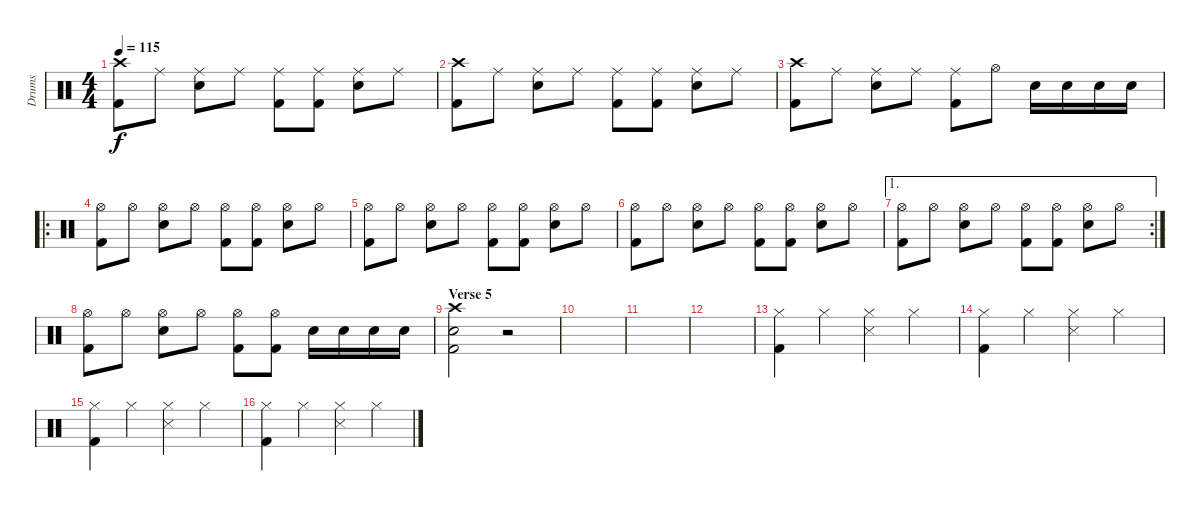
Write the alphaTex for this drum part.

\track ("Drums" "Drums") {instrument percussion}
\staff {score}
\articulation defaults
\ts (4 4)
\tempo 115
\clef neutral
\ks c
("Crash high (hit)" "Kick (hit) 2").8{dy f} "Ride (middle)".8 ("Ride (middle)" "Electric Snare (hit)").8 "Ride (middle)".8 ("Ride (middle)" "Kick (hit) 2").8 ("Ride (middle)" "Kick (hit) 2").8 ("Ride (middle)" "Electric Snare (hit)").8 "Ride (middle)".8 |
("Crash high (hit)" "Kick (hit) 2").8 "Ride (middle)".8 ("Ride (middle)" "Electric Snare (hit)").8 "Ride (middle)".8 ("Ride (middle)" "Kick (hit) 2").8 ("Ride (middle)" "Kick (hit) 2").8 ("Ride (middle)" "Electric Snare (hit)").8 "Ride (middle)".8 |
("Crash high (hit)" "Kick (hit) 2").8 "Ride (middle)".8 ("Ride (middle)" "Electric Snare (hit)").8 "Ride (middle)".8 ("Ride (middle)" "Kick (hit) 2").8 "Hi-Hat (open)".8 "Electric Snare (hit)".16 "Electric Snare (hit)".16 "Electric Snare (hit)".16 "Electric Snare (hit)".16 |
\ro
("Hi-Hat (open)" "Kick (hit) 2").8 "Hi-Hat (open)".8 ("Hi-Hat (open)" "Electric Snare (hit)").8 "Hi-Hat (open)".8 ("Hi-Hat (open)" "Kick (hit) 2").8 ("Hi-Hat (open)" "Kick (hit) 2").8 ("Hi-Hat (open)" "Electric Snare (hit)").8 "Hi-Hat (open)".8 |
("Hi-Hat (open)" "Kick (hit) 2").8 "Hi-Hat (open)".8 ("Hi-Hat (open)" "Electric Snare (hit)").8 "Hi-Hat (open)".8 ("Hi-Hat (open)" "Kick (hit) 2").8 ("Hi-Hat (open)" "Kick (hit) 2").8 ("Hi-Hat (open)" "Electric Snare (hit)").8 "Hi-Hat (open)".8 |
("Hi-Hat (open)" "Kick (hit) 2").8 "Hi-Hat (open)".8 ("Hi-Hat (open)" "Electric Snare (hit)").8 "Hi-Hat (open)".8 ("Hi-Hat (open)" "Kick (hit) 2").8 ("Hi-Hat (open)" "Kick (hit) 2").8 ("Hi-Hat (open)" "Electric Snare (hit)").8 "Hi-Hat (open)".8 |
\ae 1
\rc 2
("Hi-Hat (open)" "Kick (hit) 2").8 "Hi-Hat (open)".8 ("Hi-Hat (open)" "Electric Snare (hit)").8 "Hi-Hat (open)".8 ("Hi-Hat (open)" "Kick (hit) 2").8 ("Hi-Hat (open)" "Kick (hit) 2").8 ("Hi-Hat (open)" "Electric Snare (hit)").8 "Hi-Hat (open)".8 |
("Hi-Hat (open)" "Kick (hit) 2").8 "Hi-Hat (open)".8 ("Hi-Hat (open)" "Electric Snare (hit)").8 "Hi-Hat (open)".8 ("Hi-Hat (open)" "Kick (hit) 2").8 ("Hi-Hat (open)" "Kick (hit) 2").8 "Electric Snare (hit)".16 "Electric Snare (hit)".16 "Electric Snare (hit)".16 "Electric Snare (hit)".16 |
\section ("" "Verse 5")
("Crash high (hit)" "Kick (hit) 2" "Electric Snare (hit)").2 r.2 |
|
|
|
("Hi-Hat (closed)" "Kick (hit) 2").4 "Hi-Hat (closed)".4 ("Hi-Hat (closed)" "Snare (side stick) 3").4 "Hi-Hat (closed)".4 |
("Hi-Hat (closed)" "Kick (hit) 2").4 "Hi-Hat (closed)".4 ("Hi-Hat (closed)" "Snare (side stick) 3").4 "Hi-Hat (closed)".4 |
("Hi-Hat (closed)" "Kick (hit) 2").4 "Hi-Hat (closed)".4 ("Hi-Hat (closed)" "Snare (side stick) 3").4 "Hi-Hat (closed)".4 |
("Hi-Hat (closed)" "Kick (hit) 2").4 "Hi-Hat (closed)".4 ("Hi-Hat (closed)" "Snare (side stick) 3").4 "Hi-Hat (closed)".4
